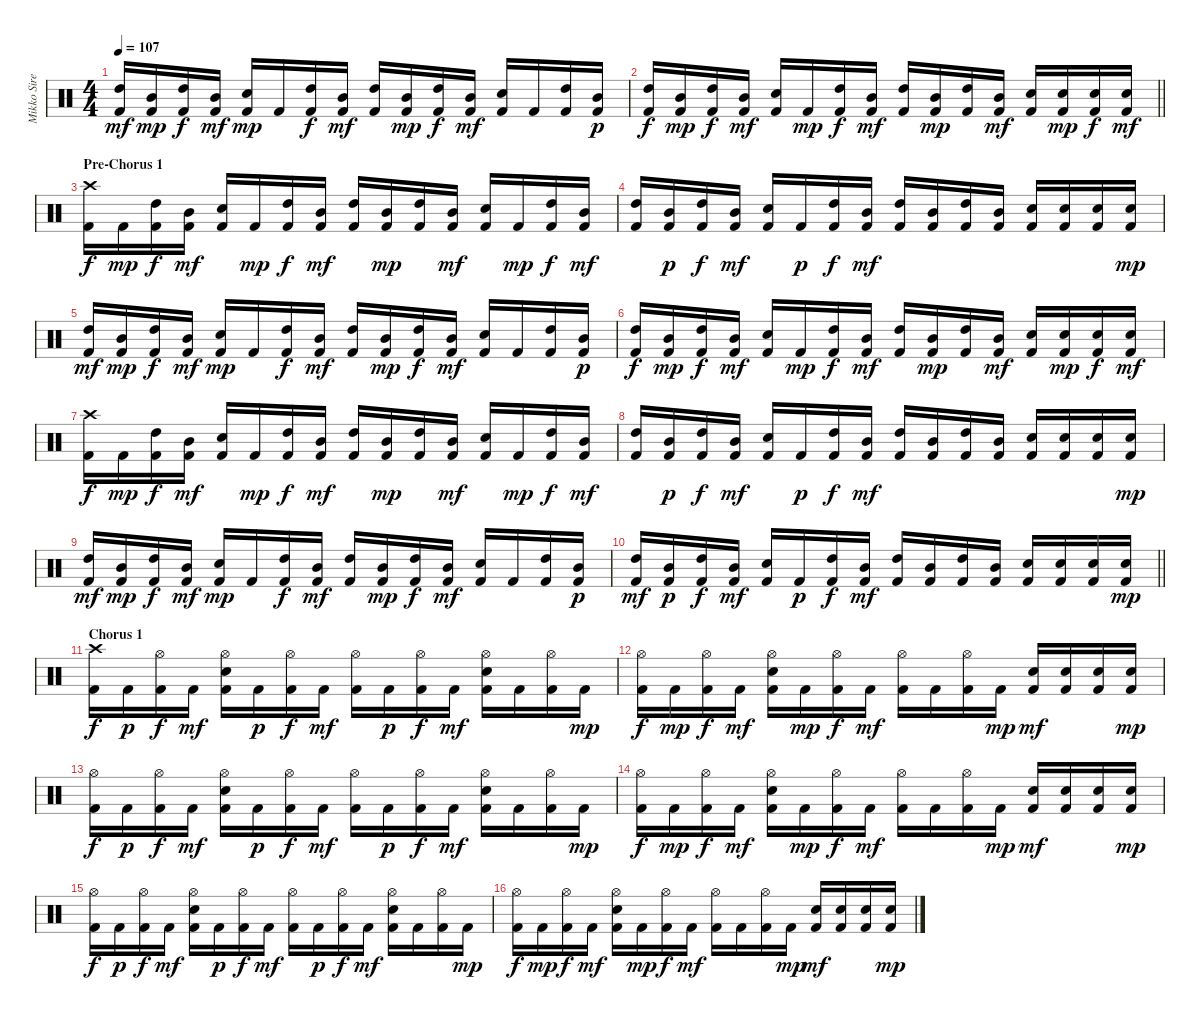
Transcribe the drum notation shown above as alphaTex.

\track ("Mikko Siren" "Mikko Sire") {instrument percussion}
\staff {score}
\articulation defaults
\ts (4 4)
\tempo 107
\clef neutral
\ks c
("Kick (hit) 2" "High Tom (hit)").16{dy mf} ("Kick (hit) 2" "Mid Tom (hit)").16{dy mp} ("Kick (hit) 2" "High Tom (hit)").16{dy f} ("Kick (hit) 2" "Mid Tom (hit)").16{dy mf} ("Kick (hit) 2" "Electric Snare (hit)").16{dy mp} "Kick (hit) 2".16 ("Kick (hit) 2" "High Tom (hit)").16{dy f} ("Kick (hit) 2" "Mid Tom (hit)").16{dy mf} ("Kick (hit) 2" "High Tom (hit)").16 ("Kick (hit) 2" "Mid Tom (hit)").16{dy mp} ("Kick (hit) 2" "High Tom (hit)").16{dy f} ("Kick (hit) 2" "Mid Tom (hit)").16{dy mf} ("Kick (hit) 2" "Electric Snare (hit)").16 "Kick (hit) 2".16 ("Kick (hit) 2" "High Tom (hit)").16 ("Kick (hit) 2" "Mid Tom (hit)").16{dy p} |
\barLineRight lightlight
("Kick (hit) 2" "High Tom (hit)").16{dy f} ("Kick (hit) 2" "Mid Tom (hit)").16{dy mp} ("Kick (hit) 2" "High Tom (hit)").16{dy f} ("Kick (hit) 2" "Mid Tom (hit)").16{dy mf} ("Kick (hit) 2" "Electric Snare (hit)").16 "Kick (hit) 2".16{dy mp} ("Kick (hit) 2" "High Tom (hit)").16{dy f} ("Kick (hit) 2" "Mid Tom (hit)").16{dy mf} ("Kick (hit) 2" "High Tom (hit)").16 ("Kick (hit) 2" "Mid Tom (hit)").16{dy mp} ("Kick (hit) 2" "High Tom (hit)").16 ("Kick (hit) 2" "Mid Tom (hit)").16{dy mf} ("Kick (hit) 2" "Electric Snare (hit)").16 ("Kick (hit) 2" "Electric Snare (hit)").16{dy mp} ("Kick (hit) 2" "Electric Snare (hit)").16{dy f} ("Kick (hit) 2" "Electric Snare (hit)").16{dy mf} |
\section ("" "Pre-Chorus 1")
("Kick (hit) 2" "Crash high (hit)").16{dy f} "Kick (hit) 2".16{dy mp} ("Kick (hit) 2" "High Tom (hit)").16{dy f} ("Kick (hit) 2" "Mid Tom (hit)").16{dy mf} ("Kick (hit) 2" "Electric Snare (hit)").16 "Kick (hit) 2".16{dy mp} ("Kick (hit) 2" "High Tom (hit)").16{dy f} ("Kick (hit) 2" "Mid Tom (hit)").16{dy mf} ("Kick (hit) 2" "High Tom (hit)").16 ("Kick (hit) 2" "Mid Tom (hit)").16{dy mp} ("Kick (hit) 2" "High Tom (hit)").16 ("Kick (hit) 2" "Mid Tom (hit)").16{dy mf} ("Kick (hit) 2" "Electric Snare (hit)").16 "Kick (hit) 2".16{dy mp} ("Kick (hit) 2" "High Tom (hit)").16{dy f} ("Kick (hit) 2" "Mid Tom (hit)").16{dy mf} |
("Kick (hit) 2" "High Tom (hit)").16 ("Kick (hit) 2" "Mid Tom (hit)").16{dy p} ("Kick (hit) 2" "High Tom (hit)").16{dy f} ("Kick (hit) 2" "Mid Tom (hit)").16{dy mf} ("Kick (hit) 2" "Electric Snare (hit)").16 "Kick (hit) 2".16{dy p} ("Kick (hit) 2" "High Tom (hit)").16{dy f} ("Kick (hit) 2" "Mid Tom (hit)").16{dy mf} ("Kick (hit) 2" "High Tom (hit)").16 ("Kick (hit) 2" "Mid Tom (hit)").16 ("Kick (hit) 2" "High Tom (hit)").16 ("Kick (hit) 2" "Mid Tom (hit)").16 ("Kick (hit) 2" "Electric Snare (hit)").16 ("Kick (hit) 2" "Electric Snare (hit)").16 ("Kick (hit) 2" "Electric Snare (hit)").16 ("Kick (hit) 2" "Electric Snare (hit)").16{dy mp} |
("Kick (hit) 2" "High Tom (hit)").16{dy mf} ("Kick (hit) 2" "Mid Tom (hit)").16{dy mp} ("Kick (hit) 2" "High Tom (hit)").16{dy f} ("Kick (hit) 2" "Mid Tom (hit)").16{dy mf} ("Kick (hit) 2" "Electric Snare (hit)").16{dy mp} "Kick (hit) 2".16 ("Kick (hit) 2" "High Tom (hit)").16{dy f} ("Kick (hit) 2" "Mid Tom (hit)").16{dy mf} ("Kick (hit) 2" "High Tom (hit)").16 ("Kick (hit) 2" "Mid Tom (hit)").16{dy mp} ("Kick (hit) 2" "High Tom (hit)").16{dy f} ("Kick (hit) 2" "Mid Tom (hit)").16{dy mf} ("Kick (hit) 2" "Electric Snare (hit)").16 "Kick (hit) 2".16 ("Kick (hit) 2" "High Tom (hit)").16 ("Kick (hit) 2" "Mid Tom (hit)").16{dy p} |
("Kick (hit) 2" "High Tom (hit)").16{dy f} ("Kick (hit) 2" "Mid Tom (hit)").16{dy mp} ("Kick (hit) 2" "High Tom (hit)").16{dy f} ("Kick (hit) 2" "Mid Tom (hit)").16{dy mf} ("Kick (hit) 2" "Electric Snare (hit)").16 "Kick (hit) 2".16{dy mp} ("Kick (hit) 2" "High Tom (hit)").16{dy f} ("Kick (hit) 2" "Mid Tom (hit)").16{dy mf} ("Kick (hit) 2" "High Tom (hit)").16 ("Kick (hit) 2" "Mid Tom (hit)").16{dy mp} ("Kick (hit) 2" "High Tom (hit)").16 ("Kick (hit) 2" "Mid Tom (hit)").16{dy mf} ("Kick (hit) 2" "Electric Snare (hit)").16 ("Kick (hit) 2" "Electric Snare (hit)").16{dy mp} ("Kick (hit) 2" "Electric Snare (hit)").16{dy f} ("Kick (hit) 2" "Electric Snare (hit)").16{dy mf} |
("Kick (hit) 2" "Crash high (hit)").16{dy f} "Kick (hit) 2".16{dy mp} ("Kick (hit) 2" "High Tom (hit)").16{dy f} ("Kick (hit) 2" "Mid Tom (hit)").16{dy mf} ("Kick (hit) 2" "Electric Snare (hit)").16 "Kick (hit) 2".16{dy mp} ("Kick (hit) 2" "High Tom (hit)").16{dy f} ("Kick (hit) 2" "Mid Tom (hit)").16{dy mf} ("Kick (hit) 2" "High Tom (hit)").16 ("Kick (hit) 2" "Mid Tom (hit)").16{dy mp} ("Kick (hit) 2" "High Tom (hit)").16 ("Kick (hit) 2" "Mid Tom (hit)").16{dy mf} ("Kick (hit) 2" "Electric Snare (hit)").16 "Kick (hit) 2".16{dy mp} ("Kick (hit) 2" "High Tom (hit)").16{dy f} ("Kick (hit) 2" "Mid Tom (hit)").16{dy mf} |
("Kick (hit) 2" "High Tom (hit)").16 ("Kick (hit) 2" "Mid Tom (hit)").16{dy p} ("Kick (hit) 2" "High Tom (hit)").16{dy f} ("Kick (hit) 2" "Mid Tom (hit)").16{dy mf} ("Kick (hit) 2" "Electric Snare (hit)").16 "Kick (hit) 2".16{dy p} ("Kick (hit) 2" "High Tom (hit)").16{dy f} ("Kick (hit) 2" "Mid Tom (hit)").16{dy mf} ("Kick (hit) 2" "High Tom (hit)").16 ("Kick (hit) 2" "Mid Tom (hit)").16 ("Kick (hit) 2" "High Tom (hit)").16 ("Kick (hit) 2" "Mid Tom (hit)").16 ("Kick (hit) 2" "Electric Snare (hit)").16 ("Kick (hit) 2" "Electric Snare (hit)").16 ("Kick (hit) 2" "Electric Snare (hit)").16 ("Kick (hit) 2" "Electric Snare (hit)").16{dy mp} |
("Kick (hit) 2" "High Tom (hit)").16{dy mf} ("Kick (hit) 2" "Mid Tom (hit)").16{dy mp} ("Kick (hit) 2" "High Tom (hit)").16{dy f} ("Kick (hit) 2" "Mid Tom (hit)").16{dy mf} ("Kick (hit) 2" "Electric Snare (hit)").16{dy mp} "Kick (hit) 2".16 ("Kick (hit) 2" "High Tom (hit)").16{dy f} ("Kick (hit) 2" "Mid Tom (hit)").16{dy mf} ("Kick (hit) 2" "High Tom (hit)").16 ("Kick (hit) 2" "Mid Tom (hit)").16{dy mp} ("Kick (hit) 2" "High Tom (hit)").16{dy f} ("Kick (hit) 2" "Mid Tom (hit)").16{dy mf} ("Kick (hit) 2" "Electric Snare (hit)").16 "Kick (hit) 2".16 ("Kick (hit) 2" "High Tom (hit)").16 ("Kick (hit) 2" "Mid Tom (hit)").16{dy p} |
\barLineRight lightlight
("Kick (hit) 2" "High Tom (hit)").16{dy mf} ("Kick (hit) 2" "Mid Tom (hit)").16{dy p} ("Kick (hit) 2" "High Tom (hit)").16{dy f} ("Kick (hit) 2" "Mid Tom (hit)").16{dy mf} ("Kick (hit) 2" "Electric Snare (hit)").16 "Kick (hit) 2".16{dy p} ("Kick (hit) 2" "High Tom (hit)").16{dy f} ("Kick (hit) 2" "Mid Tom (hit)").16{dy mf} ("Kick (hit) 2" "High Tom (hit)").16 ("Kick (hit) 2" "Mid Tom (hit)").16 ("Kick (hit) 2" "High Tom (hit)").16 ("Kick (hit) 2" "Mid Tom (hit)").16 ("Kick (hit) 2" "Electric Snare (hit)").16 ("Kick (hit) 2" "Electric Snare (hit)").16 ("Kick (hit) 2" "Electric Snare (hit)").16 ("Kick (hit) 2" "Electric Snare (hit)").16{dy mp} |
\section ("" "Chorus 1")
("Kick (hit) 2" "Crash high (hit)").16{dy f} "Kick (hit) 2".16{dy p} ("Kick (hit) 2" "Hi-Hat (open)").16{dy f} "Kick (hit) 2".16{dy mf} ("Kick (hit) 2" "Electric Snare (hit)" "Hi-Hat (open)").16 "Kick (hit) 2".16{dy p} ("Kick (hit) 2" "Hi-Hat (open)").16{dy f} "Kick (hit) 2".16{dy mf} ("Kick (hit) 2" "Hi-Hat (open)").16 "Kick (hit) 2".16{dy p} ("Kick (hit) 2" "Hi-Hat (open)").16{dy f} "Kick (hit) 2".16{dy mf} ("Kick (hit) 2" "Electric Snare (hit)" "Hi-Hat (open)").16 "Kick (hit) 2".16 ("Kick (hit) 2" "Hi-Hat (open)").16 "Kick (hit) 2".16{dy mp} |
("Kick (hit) 2" "Hi-Hat (open)").16{dy f} "Kick (hit) 2".16{dy mp} ("Kick (hit) 2" "Hi-Hat (open)").16{dy f} "Kick (hit) 2".16{dy mf} ("Kick (hit) 2" "Electric Snare (hit)" "Hi-Hat (open)").16 "Kick (hit) 2".16{dy mp} ("Kick (hit) 2" "Hi-Hat (open)").16{dy f} "Kick (hit) 2".16{dy mf} ("Kick (hit) 2" "Hi-Hat (open)").16 "Kick (hit) 2".16 ("Kick (hit) 2" "Hi-Hat (open)").16 "Kick (hit) 2".16{dy mp} ("Kick (hit) 2" "Electric Snare (hit)").16{dy mf} ("Kick (hit) 2" "Electric Snare (hit)").16 ("Kick (hit) 2" "Electric Snare (hit)").16 ("Kick (hit) 2" "Electric Snare (hit)").16{dy mp} |
("Kick (hit) 2" "Hi-Hat (open)").16{dy f} "Kick (hit) 2".16{dy p} ("Kick (hit) 2" "Hi-Hat (open)").16{dy f} "Kick (hit) 2".16{dy mf} ("Kick (hit) 2" "Electric Snare (hit)" "Hi-Hat (open)").16 "Kick (hit) 2".16{dy p} ("Kick (hit) 2" "Hi-Hat (open)").16{dy f} "Kick (hit) 2".16{dy mf} ("Kick (hit) 2" "Hi-Hat (open)").16 "Kick (hit) 2".16{dy p} ("Kick (hit) 2" "Hi-Hat (open)").16{dy f} "Kick (hit) 2".16{dy mf} ("Kick (hit) 2" "Electric Snare (hit)" "Hi-Hat (open)").16 "Kick (hit) 2".16 ("Kick (hit) 2" "Hi-Hat (open)").16 "Kick (hit) 2".16{dy mp} |
("Kick (hit) 2" "Hi-Hat (open)").16{dy f} "Kick (hit) 2".16{dy mp} ("Kick (hit) 2" "Hi-Hat (open)").16{dy f} "Kick (hit) 2".16{dy mf} ("Kick (hit) 2" "Electric Snare (hit)" "Hi-Hat (open)").16 "Kick (hit) 2".16{dy mp} ("Kick (hit) 2" "Hi-Hat (open)").16{dy f} "Kick (hit) 2".16{dy mf} ("Kick (hit) 2" "Hi-Hat (open)").16 "Kick (hit) 2".16 ("Kick (hit) 2" "Hi-Hat (open)").16 "Kick (hit) 2".16{dy mp} ("Kick (hit) 2" "Electric Snare (hit)").16{dy mf} ("Kick (hit) 2" "Electric Snare (hit)").16 ("Kick (hit) 2" "Electric Snare (hit)").16 ("Kick (hit) 2" "Electric Snare (hit)").16{dy mp} |
("Kick (hit) 2" "Hi-Hat (open)").16{dy f} "Kick (hit) 2".16{dy p} ("Kick (hit) 2" "Hi-Hat (open)").16{dy f} "Kick (hit) 2".16{dy mf} ("Kick (hit) 2" "Electric Snare (hit)" "Hi-Hat (open)").16 "Kick (hit) 2".16{dy p} ("Kick (hit) 2" "Hi-Hat (open)").16{dy f} "Kick (hit) 2".16{dy mf} ("Kick (hit) 2" "Hi-Hat (open)").16 "Kick (hit) 2".16{dy p} ("Kick (hit) 2" "Hi-Hat (open)").16{dy f} "Kick (hit) 2".16{dy mf} ("Kick (hit) 2" "Electric Snare (hit)" "Hi-Hat (open)").16 "Kick (hit) 2".16 ("Kick (hit) 2" "Hi-Hat (open)").16 "Kick (hit) 2".16{dy mp} |
("Kick (hit) 2" "Hi-Hat (open)").16{dy f} "Kick (hit) 2".16{dy mp} ("Kick (hit) 2" "Hi-Hat (open)").16{dy f} "Kick (hit) 2".16{dy mf} ("Kick (hit) 2" "Electric Snare (hit)" "Hi-Hat (open)").16 "Kick (hit) 2".16{dy mp} ("Kick (hit) 2" "Hi-Hat (open)").16{dy f} "Kick (hit) 2".16{dy mf} ("Kick (hit) 2" "Hi-Hat (open)").16 "Kick (hit) 2".16 ("Kick (hit) 2" "Hi-Hat (open)").16 "Kick (hit) 2".16{dy mp} ("Kick (hit) 2" "Electric Snare (hit)").16{dy mf} ("Kick (hit) 2" "Electric Snare (hit)").16 ("Kick (hit) 2" "Electric Snare (hit)").16 ("Kick (hit) 2" "Electric Snare (hit)").16{dy mp}
